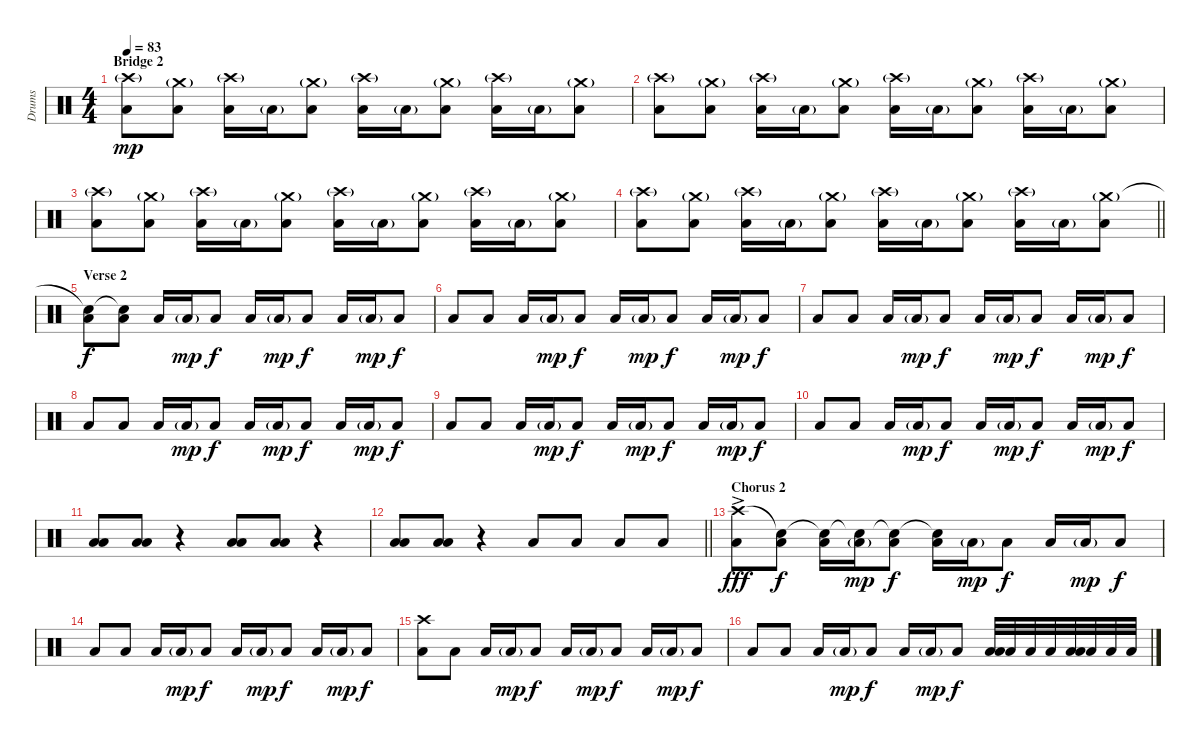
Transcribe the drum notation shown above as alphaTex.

\track ("Drums" "Drums") {instrument percussion}
\staff {score}
\articulation defaults
\ts (4 4)
\section ("" "Bridge 2")
\tempo 83
\clef neutral
\ks c
("Crash high (hit)"{g} "Low Floor Tom (hit)").8{dy mp} ("Crash medium (hit)"{g} "Low Tom (hit)").8 ("Crash high (hit)"{g} "Low Floor Tom (hit)").16 "Low Tom (hit)"{g}.16 ("Crash medium (hit)"{g} "Low Tom (hit)").8 ("Crash high (hit)"{g} "Low Floor Tom (hit)").16 "Low Tom (hit)"{g}.16 ("Crash medium (hit)"{g} "Low Tom (hit)").8 ("Crash high (hit)"{g} "Low Floor Tom (hit)").16 "Low Tom (hit)"{g}.16 ("Crash medium (hit)"{g} "Low Tom (hit)").8 |
("Crash high (hit)"{g} "Low Floor Tom (hit)").8 ("Crash medium (hit)"{g} "Low Tom (hit)").8 ("Crash high (hit)"{g} "Low Floor Tom (hit)").16 "Low Tom (hit)"{g}.16 ("Crash medium (hit)"{g} "Low Tom (hit)").8 ("Crash high (hit)"{g} "Low Floor Tom (hit)").16 "Low Tom (hit)"{g}.16 ("Crash medium (hit)"{g} "Low Tom (hit)").8 ("Crash high (hit)"{g} "Low Floor Tom (hit)").16 "Low Tom (hit)"{g}.16 ("Crash medium (hit)"{g} "Low Tom (hit)").8 |
("Crash high (hit)"{g} "Low Floor Tom (hit)").8 ("Crash medium (hit)"{g} "Low Tom (hit)").8 ("Crash high (hit)"{g} "Low Floor Tom (hit)").16 "Low Tom (hit)"{g}.16 ("Crash medium (hit)"{g} "Low Tom (hit)").8 ("Crash high (hit)"{g} "Low Floor Tom (hit)").16 "Low Tom (hit)"{g}.16 ("Crash medium (hit)"{g} "Low Tom (hit)").8 ("Crash high (hit)"{g} "Low Floor Tom (hit)").16 "Low Tom (hit)"{g}.16 ("Crash medium (hit)"{g} "Low Tom (hit)").8 |
\barLineRight lightlight
("Crash high (hit)"{g} "Low Floor Tom (hit)").8 ("Crash medium (hit)"{g} "Low Tom (hit)").8 ("Crash high (hit)"{g} "Low Floor Tom (hit)").16 "Low Tom (hit)"{g}.16 ("Crash medium (hit)"{g} "Low Tom (hit)").8 ("Crash high (hit)"{g} "Low Floor Tom (hit)").16 "Low Tom (hit)"{g}.16 ("Crash medium (hit)"{g} "Low Tom (hit)").8 ("Crash high (hit)"{g} "Low Floor Tom (hit)").16 "Low Tom (hit)"{g}.16 ("Crash medium (hit)"{g} "Low Tom (hit)").8 |
\section ("" "Verse 2")
("Snare (hit)"{t} "Low Floor Tom (hit)").8{dy f} ("Snare (hit)"{t} "Low Tom (hit)").8 "Low Floor Tom (hit)".16 "Low Tom (hit)"{g}.16{dy mp} "Low Tom (hit)".8{dy f} "Low Floor Tom (hit)".16 "Low Tom (hit)"{g}.16{dy mp} "Low Tom (hit)".8{dy f} "Low Floor Tom (hit)".16 "Low Tom (hit)"{g}.16{dy mp} "Low Tom (hit)".8{dy f} |
"Low Floor Tom (hit)".8 "Low Tom (hit)".8 "Low Floor Tom (hit)".16 "Low Tom (hit)"{g}.16{dy mp} "Low Tom (hit)".8{dy f} "Low Floor Tom (hit)".16 "Low Tom (hit)"{g}.16{dy mp} "Low Tom (hit)".8{dy f} "Low Floor Tom (hit)".16 "Low Tom (hit)"{g}.16{dy mp} "Low Tom (hit)".8{dy f} |
"Low Floor Tom (hit)".8 "Low Tom (hit)".8 "Low Floor Tom (hit)".16 "Low Tom (hit)"{g}.16{dy mp} "Low Tom (hit)".8{dy f} "Low Floor Tom (hit)".16 "Low Tom (hit)"{g}.16{dy mp} "Low Tom (hit)".8{dy f} "Low Floor Tom (hit)".16 "Low Tom (hit)"{g}.16{dy mp} "Low Tom (hit)".8{dy f} |
"Low Floor Tom (hit)".8 "Low Tom (hit)".8 "Low Floor Tom (hit)".16 "Low Tom (hit)"{g}.16{dy mp} "Low Tom (hit)".8{dy f} "Low Floor Tom (hit)".16 "Low Tom (hit)"{g}.16{dy mp} "Low Tom (hit)".8{dy f} "Low Floor Tom (hit)".16 "Low Tom (hit)"{g}.16{dy mp} "Low Tom (hit)".8{dy f} |
"Low Floor Tom (hit)".8 "Low Tom (hit)".8 "Low Floor Tom (hit)".16 "Low Tom (hit)"{g}.16{dy mp} "Low Tom (hit)".8{dy f} "Low Floor Tom (hit)".16 "Low Tom (hit)"{g}.16{dy mp} "Low Tom (hit)".8{dy f} "Low Floor Tom (hit)".16 "Low Tom (hit)"{g}.16{dy mp} "Low Tom (hit)".8{dy f} |
"Low Floor Tom (hit)".8 "Low Tom (hit)".8 "Low Floor Tom (hit)".16 "Low Tom (hit)"{g}.16{dy mp} "Low Tom (hit)".8{dy f} "Low Floor Tom (hit)".16 "Low Tom (hit)"{g}.16{dy mp} "Low Tom (hit)".8{dy f} "Low Floor Tom (hit)".16 "Low Tom (hit)"{g}.16{dy mp} "Low Tom (hit)".8{dy f} |
("Low Tom (hit)" "Low Floor Tom (hit)").8 ("Low Tom (hit)" "Low Floor Tom (hit)").8 r.4 ("Low Tom (hit)" "Low Floor Tom (hit)").8 ("Low Tom (hit)" "Low Floor Tom (hit)").8 r.4 |
\barLineRight lightlight
("Low Tom (hit)" "Low Floor Tom (hit)").8 ("Low Tom (hit)" "Low Floor Tom (hit)").8 r.4 "Low Tom (hit)".8 "Low Tom (hit)".8 "Low Tom (hit)".8 "Low Tom (hit)".8 |
\section ("" "Chorus 2")
("Crash high (hit)"{ac} "Low Floor Tom (hit)").8{dy fff} ("Snare (hit)"{t} "Low Tom (hit)").8{dy f} ("Snare (hit)"{t} "Low Floor Tom (hit)").16 ("Snare (hit)"{t} "Low Tom (hit)"{g}).16{dy mp} ("Snare (hit)"{t} "Low Tom (hit)").8{dy f} ("Snare (hit)"{t} "Low Floor Tom (hit)").16 "Low Tom (hit)"{g}.16{dy mp} "Low Tom (hit)".8{dy f} "Low Floor Tom (hit)".16 "Low Tom (hit)"{g}.16{dy mp} "Low Tom (hit)".8{dy f} |
"Low Floor Tom (hit)".8 "Low Tom (hit)".8 "Low Floor Tom (hit)".16 "Low Tom (hit)"{g}.16{dy mp} "Low Tom (hit)".8{dy f} "Low Floor Tom (hit)".16 "Low Tom (hit)"{g}.16{dy mp} "Low Tom (hit)".8{dy f} "Low Floor Tom (hit)".16 "Low Tom (hit)"{g}.16{dy mp} "Low Tom (hit)".8{dy f} |
("Crash high (hit)" "Low Floor Tom (hit)").8 "Low Tom (hit)".8 "Low Floor Tom (hit)".16 "Low Tom (hit)"{g}.16{dy mp} "Low Tom (hit)".8{dy f} "Low Floor Tom (hit)".16 "Low Tom (hit)"{g}.16{dy mp} "Low Tom (hit)".8{dy f} "Low Floor Tom (hit)".16 "Low Tom (hit)"{g}.16{dy mp} "Low Tom (hit)".8{dy f} |
"Low Floor Tom (hit)".8 "Low Tom (hit)".8 "Low Floor Tom (hit)".16 "Low Tom (hit)"{g}.16{dy mp} "Low Tom (hit)".8{dy f} "Low Floor Tom (hit)".16 "Low Tom (hit)"{g}.16{dy mp} "Low Tom (hit)".8{dy f} ("Low Tom (hit)" "Low Floor Tom (hit)").32 "Low Tom (hit)".32 "Low Tom (hit)".32 "Low Tom (hit)".32 ("Low Tom (hit)" "Low Floor Tom (hit)").32 "Low Tom (hit)".32 "Low Tom (hit)".32 "Low Tom (hit)".32
